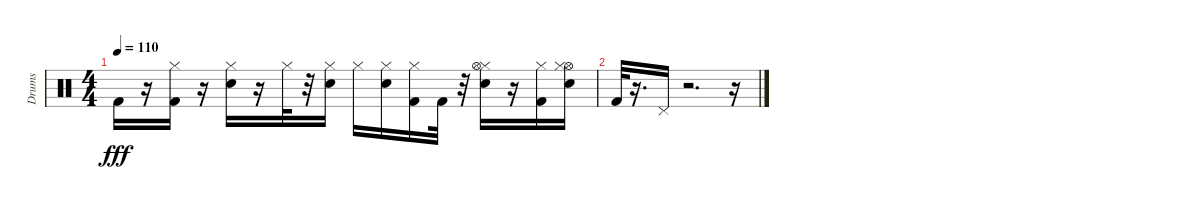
\track ("Drums" "Drums") {instrument percussion}
\staff {score}
\articulation defaults
\ts (4 4)
\tempo 110
\clef neutral
\ks c "Kick (hit) 2".16{dy fff}
r.16 ("Kick (hit) 2" "Hi-Hat (closed)").16 r.16 ("Snare (hit) 2" "Hi-Hat (closed)").16 r.16 "Hi-Hat (closed)".32 r.32 ("Snare (hit) 2" "Hi-Hat (closed)").16 "Hi-Hat (closed)".16 ("Snare (hit) 2" "Hi-Hat (closed)").16 ("Kick (hit) 2" "Hi-Hat (closed)").16 "Kick (hit) 2".32 r.32 ("Snare (hit) 2" "Hi-Hat (closed)" "Hi-Hat (open)").16 r.16 ("Kick (hit) 2" "Hi-Hat (closed)").16 ("Snare (hit) 2" "Hi-Hat (open)" "Hi-Hat (closed)").16 |
"Kick (hit) 2".32 r.16{d} "Pedal Hi-Hat (hit)".16 r.2{d} r.16
